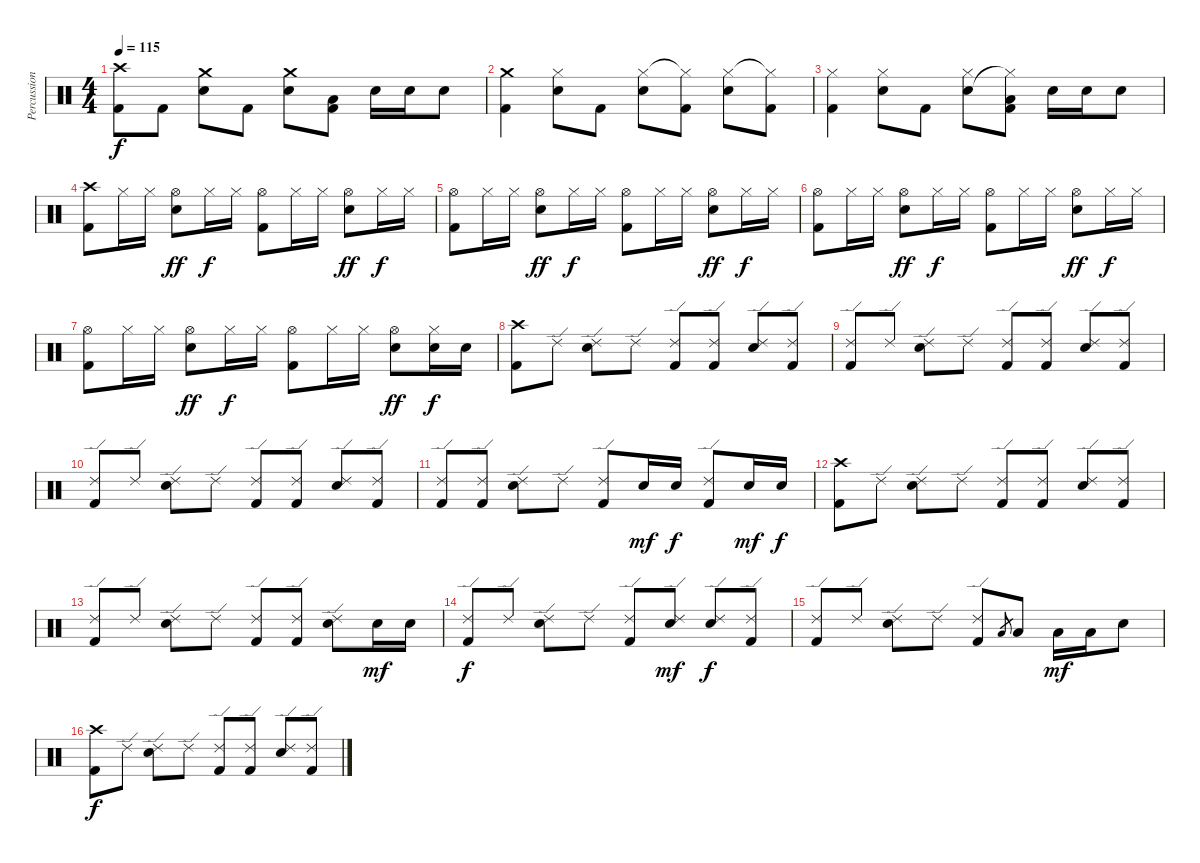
\track ("Percussion" "Percussion") {instrument percussion}
\staff {score}
\articulation defaults
\ts (4 4)
\tempo 115
\clef neutral
\ks c
("Crash high (hit)" "Kick (hit) 2").8{dy f} "Kick (hit) 2".8 ("Crash medium (hit)" "Electric Snare (hit)").8 "Kick (hit) 2".8 ("Crash medium (hit)" "Electric Snare (hit)").8 ("Low Tom (hit)" "Kick (hit) 2").8 "Electric Snare (hit)".16 "Electric Snare (hit)".16 "Electric Snare (hit)".8 |
("Crash medium (hit)" "Kick (hit) 2").4 ("Hi-Hat (closed)" "Electric Snare (hit)").8 "Kick (hit) 2".8 ("Hi-Hat (closed)" "Electric Snare (hit)").8 ("Hi-Hat (closed)"{t} "Kick (hit) 2").8 ("Hi-Hat (closed)" "Electric Snare (hit)").8 ("Hi-Hat (closed)"{t} "Kick (hit) 2").8 |
("Hi-Hat (closed)" "Kick (hit) 2").4 ("Hi-Hat (closed)" "Electric Snare (hit)").8 "Kick (hit) 2".8 ("Hi-Hat (closed)" "Electric Snare (hit)").8 ("Low Tom (hit)" "Hi-Hat (closed)"{t} "Kick (hit) 2").8 "Electric Snare (hit)".16 "Electric Snare (hit)".16 "Electric Snare (hit)".8 |
("Crash high (hit)" "Kick (hit) 2").8 "Hi-Hat (closed)".16 "Hi-Hat (closed)".16 ("Hi-Hat (open)" "Electric Snare (hit)").8{dy ff} "Hi-Hat (closed)".16{dy f} "Hi-Hat (closed)".16 ("Hi-Hat (open)" "Kick (hit) 2").8 "Hi-Hat (closed)".16 "Hi-Hat (closed)".16 ("Hi-Hat (open)" "Electric Snare (hit)").8{dy ff} "Hi-Hat (closed)".16{dy f} "Hi-Hat (closed)".16 |
("Hi-Hat (open)" "Kick (hit) 2").8 "Hi-Hat (closed)".16 "Hi-Hat (closed)".16 ("Hi-Hat (open)" "Electric Snare (hit)").8{dy ff} "Hi-Hat (closed)".16{dy f} "Hi-Hat (closed)".16 ("Hi-Hat (open)" "Kick (hit) 2").8 "Hi-Hat (closed)".16 "Hi-Hat (closed)".16 ("Hi-Hat (open)" "Electric Snare (hit)").8{dy ff} "Hi-Hat (closed)".16{dy f} "Hi-Hat (closed)".16 |
("Hi-Hat (open)" "Kick (hit) 2").8 "Hi-Hat (closed)".16 "Hi-Hat (closed)".16 ("Hi-Hat (open)" "Electric Snare (hit)").8{dy ff} "Hi-Hat (closed)".16{dy f} "Hi-Hat (closed)".16 ("Hi-Hat (open)" "Kick (hit) 2").8 "Hi-Hat (closed)".16 "Hi-Hat (closed)".16 ("Hi-Hat (open)" "Electric Snare (hit)").8{dy ff} "Hi-Hat (closed)".16{dy f} "Hi-Hat (closed)".16 |
("Hi-Hat (open)" "Kick (hit) 2").8 "Hi-Hat (closed)".16 "Hi-Hat (closed)".16 ("Hi-Hat (open)" "Electric Snare (hit)").8{dy ff} "Hi-Hat (closed)".16{dy f} "Hi-Hat (closed)".16 ("Hi-Hat (open)" "Kick (hit) 2").8 "Hi-Hat (closed)".16 "Hi-Hat (closed)".16 ("Hi-Hat (open)" "Electric Snare (hit)").8{dy ff} ("Hi-Hat (closed)" "Electric Snare (hit)").16{dy f} "Electric Snare (hit)".16 |
("Crash high (hit)" "Kick (hit) 2").8 "Ride (edge) 2".8 ("Ride (edge) 2" "Electric Snare (hit)").8 "Ride (edge) 2".8 ("Ride (edge) 2" "Kick (hit) 2").8 ("Ride (edge) 2" "Kick (hit) 2").8 ("Ride (edge) 2" "Electric Snare (hit)").8 ("Ride (edge) 2" "Kick (hit) 2").8 |
("Ride (edge) 2" "Kick (hit) 2").8 "Ride (edge) 2".8 ("Ride (edge) 2" "Electric Snare (hit)").8 "Ride (edge) 2".8 ("Ride (edge) 2" "Kick (hit) 2").8 ("Ride (edge) 2" "Kick (hit) 2").8 ("Ride (edge) 2" "Electric Snare (hit)").8 ("Ride (edge) 2" "Kick (hit) 2").8 |
("Ride (edge) 2" "Kick (hit) 2").8 "Ride (edge) 2".8 ("Ride (edge) 2" "Electric Snare (hit)").8 "Ride (edge) 2".8 ("Ride (edge) 2" "Kick (hit) 2").8 ("Ride (edge) 2" "Kick (hit) 2").8 ("Ride (edge) 2" "Electric Snare (hit)").8 ("Ride (edge) 2" "Kick (hit) 2").8 |
("Ride (edge) 2" "Kick (hit) 2").8 ("Ride (edge) 2" "Kick (hit) 2").8 ("Ride (edge) 2" "Electric Snare (hit)").8 "Ride (edge) 2".8 ("Ride (edge) 2" "Kick (hit) 2").8 "Electric Snare (hit)".16{dy mf} "Electric Snare (hit)".16{dy f} ("Ride (edge) 2" "Kick (hit) 2").8 "Electric Snare (hit)".16{dy mf} "Electric Snare (hit)".16{dy f} |
("Crash high (hit)" "Kick (hit) 2").8 "Ride (edge) 2".8 ("Ride (edge) 2" "Electric Snare (hit)").8 "Ride (edge) 2".8 ("Ride (edge) 2" "Kick (hit) 2").8 ("Ride (edge) 2" "Kick (hit) 2").8 ("Ride (edge) 2" "Electric Snare (hit)").8 ("Ride (edge) 2" "Kick (hit) 2").8 |
("Ride (edge) 2" "Kick (hit) 2").8 "Ride (edge) 2".8 ("Ride (edge) 2" "Electric Snare (hit)").8 "Ride (edge) 2".8 ("Ride (edge) 2" "Kick (hit) 2").8 ("Ride (edge) 2" "Kick (hit) 2").8 ("Ride (edge) 2" "Electric Snare (hit)").8 "Electric Snare (hit)".16{dy mf} "Electric Snare (hit)".16 |
("Ride (edge) 2" "Kick (hit) 2").8{dy f} "Ride (edge) 2".8 ("Ride (edge) 2" "Electric Snare (hit)").8 "Ride (edge) 2".8 ("Ride (edge) 2" "Kick (hit) 2").8 ("Ride (edge) 2" "Electric Snare (hit)").8{dy mf} ("Ride (edge) 2" "Electric Snare (hit)").8{dy f} ("Ride (edge) 2" "Kick (hit) 2").8 |
("Ride (edge) 2" "Kick (hit) 2").8 "Ride (edge) 2".8 ("Ride (edge) 2" "Electric Snare (hit)").8 "Ride (edge) 2".8 ("Ride (edge) 2" "Kick (hit) 2").8 "Low Tom (hit)".8{gr} "Low Floor Tom (hit)".8 "Low Tom (hit)".16{dy mf} "Low Floor Tom (hit)".16 "Electric Snare (hit)".8 |
("Crash high (hit)" "Kick (hit) 2").8{dy f} "Ride (edge) 2".8 ("Ride (edge) 2" "Electric Snare (hit)").8 "Ride (edge) 2".8 ("Ride (edge) 2" "Kick (hit) 2").8 ("Ride (edge) 2" "Kick (hit) 2").8 ("Ride (edge) 2" "Electric Snare (hit)").8 ("Ride (edge) 2" "Kick (hit) 2").8
